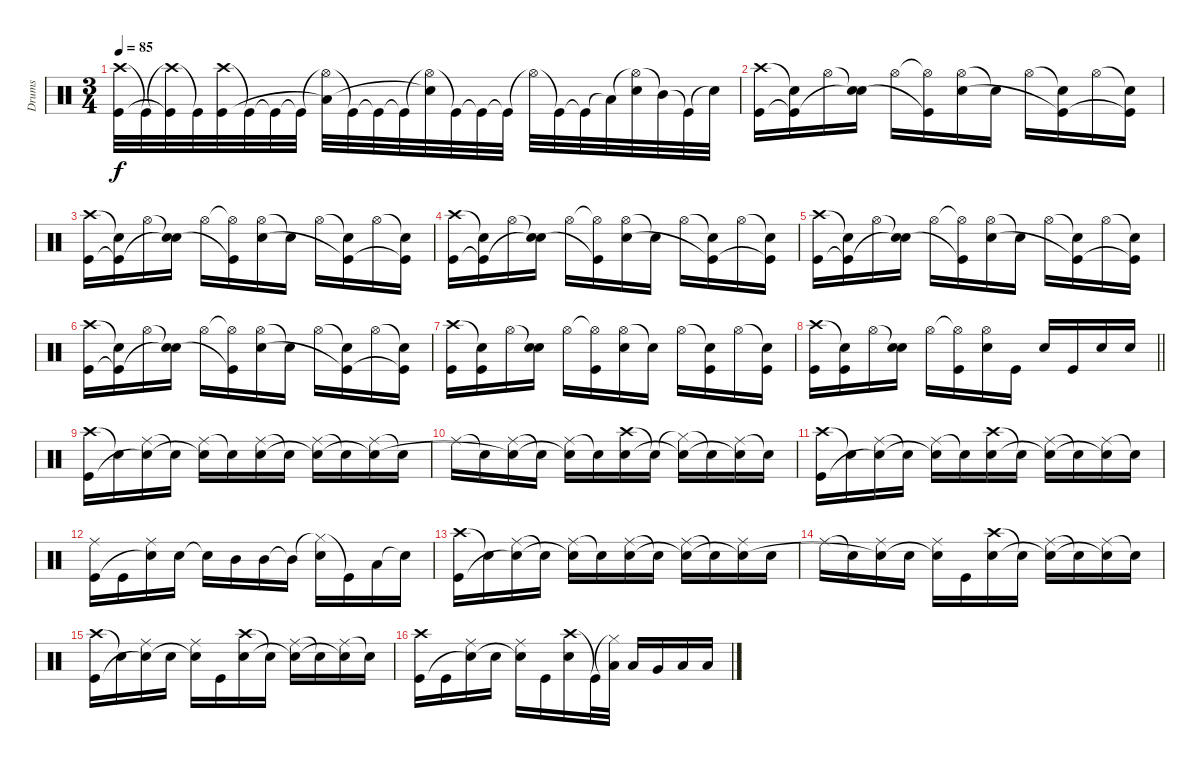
\track ("Drums" "Drums") {instrument percussion}
\staff {score}
\articulation defaults
\ts (3 4)
\tempo 85
\clef neutral
\ks c
("Crash high (hit)" "Kick (hit)").32{dy f} "Kick (hit)"{t}.32 ("Crash high (hit)"{t} "Kick (hit)"{t}).32 "Kick (hit)"{t}.32 ("Crash high (hit)" "Kick (hit)").32 "Kick (hit)"{t}.32 "Kick (hit)"{t}.32 "Kick (hit)"{t}.32 ("Hi-Hat (open)"{t} "Low Floor Tom (hit)"{t}).32 "Kick (hit)"{t}.32 "Kick (hit)"{t}.32 "Kick (hit)"{t}.32 ("Hi-Hat (open)"{t} "Electric Snare (hit)"{t}).32 "Kick (hit)"{t}.32 "Kick (hit)"{t}.32 "Kick (hit)"{t}.32 "Hi-Hat (open)"{t}.32 "Kick (hit)"{t}.32 "Kick (hit)"{t}.32 "Low Floor Tom (hit)"{t}.32 ("Hi-Hat (open)"{t} "Electric Snare (hit)").32 "Mid Tom (hit)"{t}.32 "Kick (hit)"{t}.32 "Snare (hit)"{t}.32 |
("Crash high (hit)" "Kick (hit)").16 ("Snare (hit)"{t} "Kick (hit)"{t}).16 "Hi-Hat (open)".16 ("Snare (hit)"{t} "Electric Snare (hit)"{t}).16 "Hi-Hat (open)".16 ("Hi-Hat (open)"{t} "Kick (hit)"{t}).16 ("Hi-Hat (open)" "Electric Snare (hit)").16 "Snare (hit)"{t}.16 "Hi-Hat (open)".16 ("Snare (hit)"{t} "Kick (hit)"{t}).16 "Hi-Hat (open)".16 ("Snare (hit)"{t} "Kick (hit)"{t}).16 |
("Crash high (hit)" "Kick (hit)").16 ("Snare (hit)"{t} "Kick (hit)"{t}).16 "Hi-Hat (open)".16 ("Snare (hit)"{t} "Electric Snare (hit)"{t}).16 "Hi-Hat (open)".16 ("Hi-Hat (open)"{t} "Kick (hit)"{t}).16 ("Hi-Hat (open)" "Electric Snare (hit)").16 "Snare (hit)"{t}.16 "Hi-Hat (open)".16 ("Snare (hit)"{t} "Kick (hit)"{t}).16 "Hi-Hat (open)".16 ("Snare (hit)"{t} "Kick (hit)"{t}).16 |
("Crash high (hit)" "Kick (hit)").16 ("Snare (hit)"{t} "Kick (hit)"{t}).16 "Hi-Hat (open)".16 ("Snare (hit)"{t} "Electric Snare (hit)"{t}).16 "Hi-Hat (open)".16 ("Hi-Hat (open)"{t} "Kick (hit)"{t}).16 ("Hi-Hat (open)" "Electric Snare (hit)").16 "Snare (hit)"{t}.16 "Hi-Hat (open)".16 ("Snare (hit)"{t} "Kick (hit)"{t}).16 "Hi-Hat (open)".16 ("Snare (hit)"{t} "Kick (hit)"{t}).16 |
("Crash high (hit)" "Kick (hit)").16 ("Snare (hit)"{t} "Kick (hit)"{t}).16 "Hi-Hat (open)".16 ("Snare (hit)"{t} "Electric Snare (hit)"{t}).16 "Hi-Hat (open)".16 ("Hi-Hat (open)"{t} "Kick (hit)"{t}).16 ("Hi-Hat (open)" "Electric Snare (hit)").16 "Snare (hit)"{t}.16 "Hi-Hat (open)".16 ("Snare (hit)"{t} "Kick (hit)"{t}).16 "Hi-Hat (open)".16 ("Snare (hit)"{t} "Kick (hit)"{t}).16 |
("Crash high (hit)" "Kick (hit)").16 ("Snare (hit)"{t} "Kick (hit)"{t}).16 "Hi-Hat (open)".16 ("Snare (hit)"{t} "Electric Snare (hit)"{t}).16 "Hi-Hat (open)".16 ("Hi-Hat (open)"{t} "Kick (hit)"{t}).16 ("Hi-Hat (open)" "Electric Snare (hit)").16 "Snare (hit)"{t}.16 "Hi-Hat (open)".16 ("Snare (hit)"{t} "Kick (hit)"{t}).16 "Hi-Hat (open)".16 ("Snare (hit)"{t} "Kick (hit)"{t}).16 |
("Crash high (hit)" "Kick (hit)").16 ("Snare (hit)"{t} "Kick (hit)").16 "Hi-Hat (open)".16 ("Snare (hit)"{t} "Electric Snare (hit)").16 "Hi-Hat (open)".16 ("Hi-Hat (open)"{t} "Kick (hit)").16 ("Hi-Hat (open)" "Electric Snare (hit)").16 "Snare (hit)"{t}.16 "Hi-Hat (open)".16 ("Snare (hit)"{t} "Kick (hit)").16 "Hi-Hat (open)".16 ("Snare (hit)"{t} "Kick (hit)").16 |
\barLineRight lightlight
("Crash high (hit)" "Kick (hit)").16 ("Snare (hit)"{t} "Kick (hit)").16 "Hi-Hat (open)".16 ("Snare (hit)"{t} "Electric Snare (hit)").16 "Hi-Hat (open)".16 ("Hi-Hat (open)"{t} "Kick (hit)").16 ("Hi-Hat (open)" "Electric Snare (hit)").16 "Kick (hit)".16 "Electric Snare (hit)".16 "Kick (hit)".16 "Electric Snare (hit)".16 "Electric Snare (hit)".16 |
("Crash high (hit)" "Kick (hit)").16 "Snare (hit)"{t}.16 ("Ride (middle)" "Snare (hit)"{t}).16 "Snare (hit)"{t}.16 ("Ride (middle)" "Snare (hit)"{t}).16 "Snare (hit)"{t}.16 ("Ride (middle)" "Electric Snare (hit)").16 "Snare (hit)"{t}.16 ("Ride (middle)" "Snare (hit)"{t}).16 "Snare (hit)"{t}.16 ("Ride (middle)" "Snare (hit)"{t}).16 "Snare (hit)"{t}.16 |
"Ride (middle)".16 "Snare (hit)"{t}.16 ("Ride (middle)" "Snare (hit)"{t}).16 "Snare (hit)"{t}.16 ("Ride (middle)" "Snare (hit)"{t}).16 "Snare (hit)"{t}.16 ("Crash high (hit)" "Electric Snare (hit)").16 "Snare (hit)"{t}.16 ("Hi-Hat (closed)"{t} "Snare (hit)"{t}).16 "Snare (hit)"{t}.16 ("Ride (middle)" "Snare (hit)"{t}).16 "Snare (hit)"{t}.16 |
("Crash high (hit)" "Kick (hit)").16 "Snare (hit)"{t}.16 ("Ride (middle)" "Snare (hit)"{t}).16 "Snare (hit)"{t}.16 ("Ride (middle)" "Snare (hit)"{t}).16 "Snare (hit)"{t}.16 ("Crash high (hit)" "Electric Snare (hit)").16 "Snare (hit)"{t}.16 ("Ride (middle)" "Snare (hit)"{t}).16 "Snare (hit)"{t}.16 ("Ride (middle)" "Snare (hit)"{t}).16 "Snare (hit)"{t}.16 |
("Ride (middle)" "Kick (hit)").16 "Kick (hit)".16 ("Ride (middle)" "Snare (hit)"{t}).16 "Electric Snare (hit)".16 "Snare (hit)"{t}.16 "Mid Tom (hit)".16 "Mid Tom (hit)".16 "Mid Tom (hit)"{t}.16 ("Hi-Hat (closed)"{t} "Electric Snare (hit)").16 "Kick (hit)"{t}.16 "Low Floor Tom (hit)".16 "Snare (hit)"{t}.16 |
("Crash high (hit)" "Kick (hit)").16 "Snare (hit)"{t}.16 ("Ride (middle)" "Snare (hit)"{t}).16 "Snare (hit)"{t}.16 ("Ride (middle)" "Snare (hit)"{t}).16 "Snare (hit)"{t}.16 ("Ride (middle)" "Electric Snare (hit)").16 "Snare (hit)"{t}.16 ("Ride (middle)" "Snare (hit)"{t}).16 "Snare (hit)"{t}.16 ("Ride (middle)" "Snare (hit)"{t}).16 "Electric Snare (hit)".16 |
"Ride (middle)".16 "Snare (hit)"{t}.16 ("Ride (middle)" "Snare (hit)"{t}).16 "Electric Snare (hit)".16 ("Ride (middle)" "Snare (hit)"{t}).16 "Kick (hit)".16 ("Crash high (hit)" "Electric Snare (hit)").16 "Snare (hit)"{t}.16 ("Ride (middle)" "Snare (hit)"{t}).16 "Snare (hit)"{t}.16 ("Ride (middle)" "Snare (hit)"{t}).16 "Snare (hit)"{t}.16 |
("Crash high (hit)" "Kick (hit)").16 "Snare (hit)"{t}.16 ("Ride (middle)" "Snare (hit)"{t}).16 "Electric Snare (hit)".16 ("Ride (middle)" "Snare (hit)"{t}).16 "Kick (hit)".16 ("Crash high (hit)" "Electric Snare (hit)").16 "Snare (hit)"{t}.16 ("Ride (middle)" "Snare (hit)"{t}).16 "Snare (hit)"{t}.16 ("Ride (middle)" "Snare (hit)"{t}).16 "Snare (hit)"{t}.16 |
("Crash high (hit)" "Kick (hit)").16 "Kick (hit)".16 ("Ride (middle)" "Snare (hit)"{t}).16 "Electric Snare (hit)".16 ("Ride (middle)" "Snare (hit)"{t}).16 "Kick (hit)".16 ("Crash high (hit)" "Electric Snare (hit)").16 "Kick (hit)"{t}.32 ("Hi-Hat (closed)"{t} "Low Tom (hit)").32 "Low Tom (hit)".16 "Very Low Tom (hit)".16 "Low Floor Tom (hit)".16 "Low Floor Tom (hit)".16
